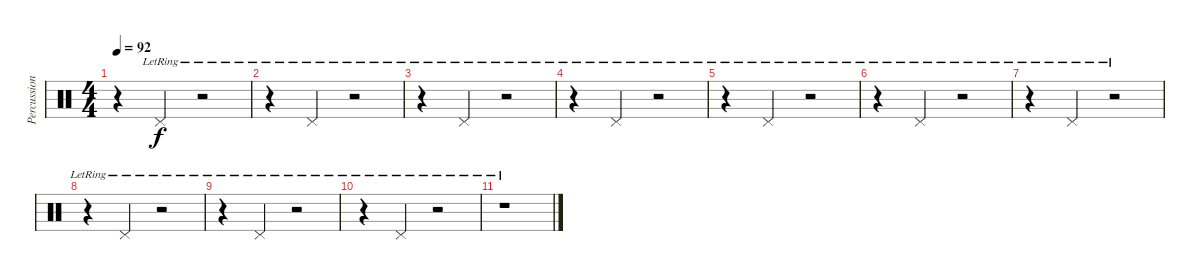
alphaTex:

\track ("Percussion" "Percussion") {instrument percussion}
\staff {score}
\articulation defaults
\ts (4 4)
\tempo 92
\clef neutral
\ks c
r.4{dy f} "Pedal Hi-Hat (hit)"{lr}.4 r.2 |
r.4 "Pedal Hi-Hat (hit)"{lr}.4 r.2 |
r.4 "Pedal Hi-Hat (hit)"{lr}.4 r.2 |
r.4 "Pedal Hi-Hat (hit)"{lr}.4 r.2 |
r.4 "Pedal Hi-Hat (hit)"{lr}.4 r.2 |
r.4 "Pedal Hi-Hat (hit)"{lr}.4 r.2 |
r.4 "Pedal Hi-Hat (hit)"{lr}.4 r.2 |
r.4 "Pedal Hi-Hat (hit)"{lr}.4 r.2 |
r.4 "Pedal Hi-Hat (hit)"{lr}.4 r.2 |
r.4 "Pedal Hi-Hat (hit)"{lr}.4 r.2 |
r.1
